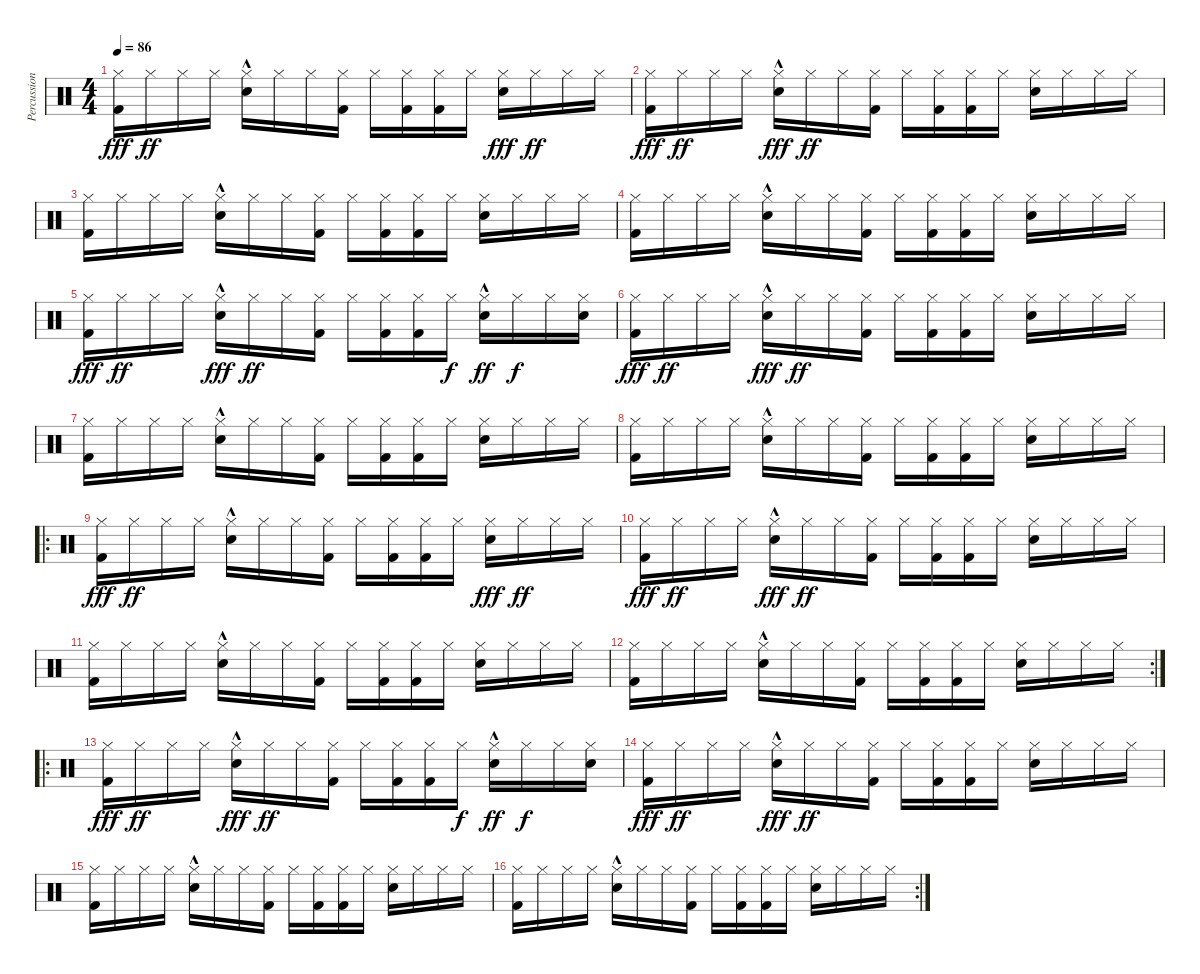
\track ("Percussion" "Percussion") {instrument percussion}
\staff {score}
\articulation defaults
\ts (4 4)
\tempo 86
\clef neutral
\ks c
("Hi-Hat (closed)" "Kick (hit) 2").16{dy fff} "Hi-Hat (closed)".16{dy ff} "Hi-Hat (closed)".16 "Hi-Hat (closed)".16 ("Hi-Hat (closed)" "Snare (hit) 2"{hac}).16 "Hi-Hat (closed)".16 "Hi-Hat (closed)".16 ("Hi-Hat (closed)" "Kick (hit) 2").16 "Hi-Hat (closed)".16 ("Hi-Hat (closed)" "Kick (hit) 2").16 ("Hi-Hat (closed)" "Kick (hit) 2").16 "Hi-Hat (closed)".16 ("Hi-Hat (closed)" "Snare (hit) 2").16{dy fff} "Hi-Hat (closed)".16{dy ff} "Hi-Hat (closed)".16 "Hi-Hat (closed)".16 |
("Hi-Hat (closed)" "Kick (hit) 2").16{dy fff} "Hi-Hat (closed)".16{dy ff} "Hi-Hat (closed)".16 "Hi-Hat (closed)".16 ("Hi-Hat (closed)" "Snare (hit) 2"{hac}).16{dy fff} "Hi-Hat (closed)".16{dy ff} "Hi-Hat (closed)".16 ("Hi-Hat (closed)" "Kick (hit) 2").16 "Hi-Hat (closed)".16 ("Hi-Hat (closed)" "Kick (hit) 2").16 ("Hi-Hat (closed)" "Kick (hit) 2").16 "Hi-Hat (closed)".16 ("Hi-Hat (closed)" "Snare (hit) 2").16 "Hi-Hat (closed)".16 "Hi-Hat (closed)".16 "Hi-Hat (closed)".16 |
("Hi-Hat (closed)" "Kick (hit) 2").16 "Hi-Hat (closed)".16 "Hi-Hat (closed)".16 "Hi-Hat (closed)".16 ("Snare (hit) 2"{hac} "Hi-Hat (closed)").16 "Hi-Hat (closed)".16 "Hi-Hat (closed)".16 ("Hi-Hat (closed)" "Kick (hit) 2").16 "Hi-Hat (closed)".16 ("Kick (hit) 2" "Hi-Hat (closed)").16 ("Kick (hit) 2" "Hi-Hat (closed)").16 "Hi-Hat (closed)".16 ("Hi-Hat (closed)" "Snare (hit) 2").16 "Hi-Hat (closed)".16 "Hi-Hat (closed)".16 "Hi-Hat (closed)".16 |
("Hi-Hat (closed)" "Kick (hit) 2").16 "Hi-Hat (closed)".16 "Hi-Hat (closed)".16 "Hi-Hat (closed)".16 ("Snare (hit) 2"{hac} "Hi-Hat (closed)").16 "Hi-Hat (closed)".16 "Hi-Hat (closed)".16 ("Hi-Hat (closed)" "Kick (hit) 2").16 "Hi-Hat (closed)".16 ("Kick (hit) 2" "Hi-Hat (closed)").16 ("Kick (hit) 2" "Hi-Hat (closed)").16 "Hi-Hat (closed)".16 ("Hi-Hat (closed)" "Snare (hit) 2").16 "Hi-Hat (closed)".16 "Hi-Hat (closed)".16 "Hi-Hat (closed)".16 |
("Hi-Hat (closed)" "Kick (hit) 2").16{dy fff} "Hi-Hat (closed)".16{dy ff} "Hi-Hat (closed)".16 "Hi-Hat (closed)".16 ("Hi-Hat (closed)" "Snare (hit) 2"{hac}).16{dy fff} "Hi-Hat (closed)".16{dy ff} "Hi-Hat (closed)".16 ("Hi-Hat (closed)" "Kick (hit) 2").16 "Hi-Hat (closed)".16 ("Hi-Hat (closed)" "Kick (hit) 2").16 ("Hi-Hat (closed)" "Kick (hit) 2").16 "Hi-Hat (closed)".16{dy f} ("Hi-Hat (closed)" "Snare (hit) 2"{hac}).16{dy ff} "Hi-Hat (closed)".16{dy f} "Hi-Hat (closed)".16 ("Hi-Hat (closed)" "Snare (hit) 2").16 |
("Hi-Hat (closed)" "Kick (hit) 2").16{dy fff} "Hi-Hat (closed)".16{dy ff} "Hi-Hat (closed)".16 "Hi-Hat (closed)".16 ("Hi-Hat (closed)" "Snare (hit) 2"{hac}).16{dy fff} "Hi-Hat (closed)".16{dy ff} "Hi-Hat (closed)".16 ("Hi-Hat (closed)" "Kick (hit) 2").16 "Hi-Hat (closed)".16 ("Hi-Hat (closed)" "Kick (hit) 2").16 ("Hi-Hat (closed)" "Kick (hit) 2").16 "Hi-Hat (closed)".16 ("Hi-Hat (closed)" "Snare (hit) 2").16 "Hi-Hat (closed)".16 "Hi-Hat (closed)".16 "Hi-Hat (closed)".16 |
("Hi-Hat (closed)" "Kick (hit) 2").16 "Hi-Hat (closed)".16 "Hi-Hat (closed)".16 "Hi-Hat (closed)".16 ("Snare (hit) 2"{hac} "Hi-Hat (closed)").16 "Hi-Hat (closed)".16 "Hi-Hat (closed)".16 ("Hi-Hat (closed)" "Kick (hit) 2").16 "Hi-Hat (closed)".16 ("Kick (hit) 2" "Hi-Hat (closed)").16 ("Kick (hit) 2" "Hi-Hat (closed)").16 "Hi-Hat (closed)".16 ("Hi-Hat (closed)" "Snare (hit) 2").16 "Hi-Hat (closed)".16 "Hi-Hat (closed)".16 "Hi-Hat (closed)".16 |
("Hi-Hat (closed)" "Kick (hit) 2").16 "Hi-Hat (closed)".16 "Hi-Hat (closed)".16 "Hi-Hat (closed)".16 ("Snare (hit) 2"{hac} "Hi-Hat (closed)").16 "Hi-Hat (closed)".16 "Hi-Hat (closed)".16 ("Hi-Hat (closed)" "Kick (hit) 2").16 "Hi-Hat (closed)".16 ("Kick (hit) 2" "Hi-Hat (closed)").16 ("Kick (hit) 2" "Hi-Hat (closed)").16 "Hi-Hat (closed)".16 ("Hi-Hat (closed)" "Snare (hit) 2").16 "Hi-Hat (closed)".16 "Hi-Hat (closed)".16 "Hi-Hat (closed)".16 |
\ro
("Hi-Hat (closed)" "Kick (hit) 2").16{dy fff} "Hi-Hat (closed)".16{dy ff} "Hi-Hat (closed)".16 "Hi-Hat (closed)".16 ("Hi-Hat (closed)" "Snare (hit) 2"{hac}).16 "Hi-Hat (closed)".16 "Hi-Hat (closed)".16 ("Hi-Hat (closed)" "Kick (hit) 2").16 "Hi-Hat (closed)".16 ("Hi-Hat (closed)" "Kick (hit) 2").16 ("Hi-Hat (closed)" "Kick (hit) 2").16 "Hi-Hat (closed)".16 ("Hi-Hat (closed)" "Snare (hit) 2").16{dy fff} "Hi-Hat (closed)".16{dy ff} "Hi-Hat (closed)".16 "Hi-Hat (closed)".16 |
("Hi-Hat (closed)" "Kick (hit) 2").16{dy fff} "Hi-Hat (closed)".16{dy ff} "Hi-Hat (closed)".16 "Hi-Hat (closed)".16 ("Hi-Hat (closed)" "Snare (hit) 2"{hac}).16{dy fff} "Hi-Hat (closed)".16{dy ff} "Hi-Hat (closed)".16 ("Hi-Hat (closed)" "Kick (hit) 2").16 "Hi-Hat (closed)".16 ("Hi-Hat (closed)" "Kick (hit) 2").16 ("Hi-Hat (closed)" "Kick (hit) 2").16 "Hi-Hat (closed)".16 ("Hi-Hat (closed)" "Snare (hit) 2").16 "Hi-Hat (closed)".16 "Hi-Hat (closed)".16 "Hi-Hat (closed)".16 |
("Hi-Hat (closed)" "Kick (hit) 2").16 "Hi-Hat (closed)".16 "Hi-Hat (closed)".16 "Hi-Hat (closed)".16 ("Snare (hit) 2"{hac} "Hi-Hat (closed)").16 "Hi-Hat (closed)".16 "Hi-Hat (closed)".16 ("Hi-Hat (closed)" "Kick (hit) 2").16 "Hi-Hat (closed)".16 ("Kick (hit) 2" "Hi-Hat (closed)").16 ("Kick (hit) 2" "Hi-Hat (closed)").16 "Hi-Hat (closed)".16 ("Hi-Hat (closed)" "Snare (hit) 2").16 "Hi-Hat (closed)".16 "Hi-Hat (closed)".16 "Hi-Hat (closed)".16 |
\rc 2
("Hi-Hat (closed)" "Kick (hit) 2").16 "Hi-Hat (closed)".16 "Hi-Hat (closed)".16 "Hi-Hat (closed)".16 ("Snare (hit) 2"{hac} "Hi-Hat (closed)").16 "Hi-Hat (closed)".16 "Hi-Hat (closed)".16 ("Hi-Hat (closed)" "Kick (hit) 2").16 "Hi-Hat (closed)".16 ("Kick (hit) 2" "Hi-Hat (closed)").16 ("Kick (hit) 2" "Hi-Hat (closed)").16 "Hi-Hat (closed)".16 ("Hi-Hat (closed)" "Snare (hit) 2").16 "Hi-Hat (closed)".16 "Hi-Hat (closed)".16 "Hi-Hat (closed)".16 |
\ro
("Hi-Hat (closed)" "Kick (hit) 2").16{dy fff} "Hi-Hat (closed)".16{dy ff} "Hi-Hat (closed)".16 "Hi-Hat (closed)".16 ("Hi-Hat (closed)" "Snare (hit) 2"{hac}).16{dy fff} "Hi-Hat (closed)".16{dy ff} "Hi-Hat (closed)".16 ("Hi-Hat (closed)" "Kick (hit) 2").16 "Hi-Hat (closed)".16 ("Hi-Hat (closed)" "Kick (hit) 2").16 ("Hi-Hat (closed)" "Kick (hit) 2").16 "Hi-Hat (closed)".16{dy f} ("Hi-Hat (closed)" "Snare (hit) 2"{hac}).16{dy ff} "Hi-Hat (closed)".16{dy f} "Hi-Hat (closed)".16 ("Hi-Hat (closed)" "Snare (hit) 2").16 |
("Hi-Hat (closed)" "Kick (hit) 2").16{dy fff} "Hi-Hat (closed)".16{dy ff} "Hi-Hat (closed)".16 "Hi-Hat (closed)".16 ("Hi-Hat (closed)" "Snare (hit) 2"{hac}).16{dy fff} "Hi-Hat (closed)".16{dy ff} "Hi-Hat (closed)".16 ("Hi-Hat (closed)" "Kick (hit) 2").16 "Hi-Hat (closed)".16 ("Hi-Hat (closed)" "Kick (hit) 2").16 ("Hi-Hat (closed)" "Kick (hit) 2").16 "Hi-Hat (closed)".16 ("Hi-Hat (closed)" "Snare (hit) 2").16 "Hi-Hat (closed)".16 "Hi-Hat (closed)".16 "Hi-Hat (closed)".16 |
("Hi-Hat (closed)" "Kick (hit) 2").16 "Hi-Hat (closed)".16 "Hi-Hat (closed)".16 "Hi-Hat (closed)".16 ("Snare (hit) 2"{hac} "Hi-Hat (closed)").16 "Hi-Hat (closed)".16 "Hi-Hat (closed)".16 ("Hi-Hat (closed)" "Kick (hit) 2").16 "Hi-Hat (closed)".16 ("Kick (hit) 2" "Hi-Hat (closed)").16 ("Kick (hit) 2" "Hi-Hat (closed)").16 "Hi-Hat (closed)".16 ("Hi-Hat (closed)" "Snare (hit) 2").16 "Hi-Hat (closed)".16 "Hi-Hat (closed)".16 "Hi-Hat (closed)".16 |
\rc 2
("Hi-Hat (closed)" "Kick (hit) 2").16 "Hi-Hat (closed)".16 "Hi-Hat (closed)".16 "Hi-Hat (closed)".16 ("Snare (hit) 2"{hac} "Hi-Hat (closed)").16 "Hi-Hat (closed)".16 "Hi-Hat (closed)".16 ("Hi-Hat (closed)" "Kick (hit) 2").16 "Hi-Hat (closed)".16 ("Kick (hit) 2" "Hi-Hat (closed)").16 ("Kick (hit) 2" "Hi-Hat (closed)").16 "Hi-Hat (closed)".16 ("Hi-Hat (closed)" "Snare (hit) 2").16 "Hi-Hat (closed)".16 "Hi-Hat (closed)".16 "Hi-Hat (closed)".16
